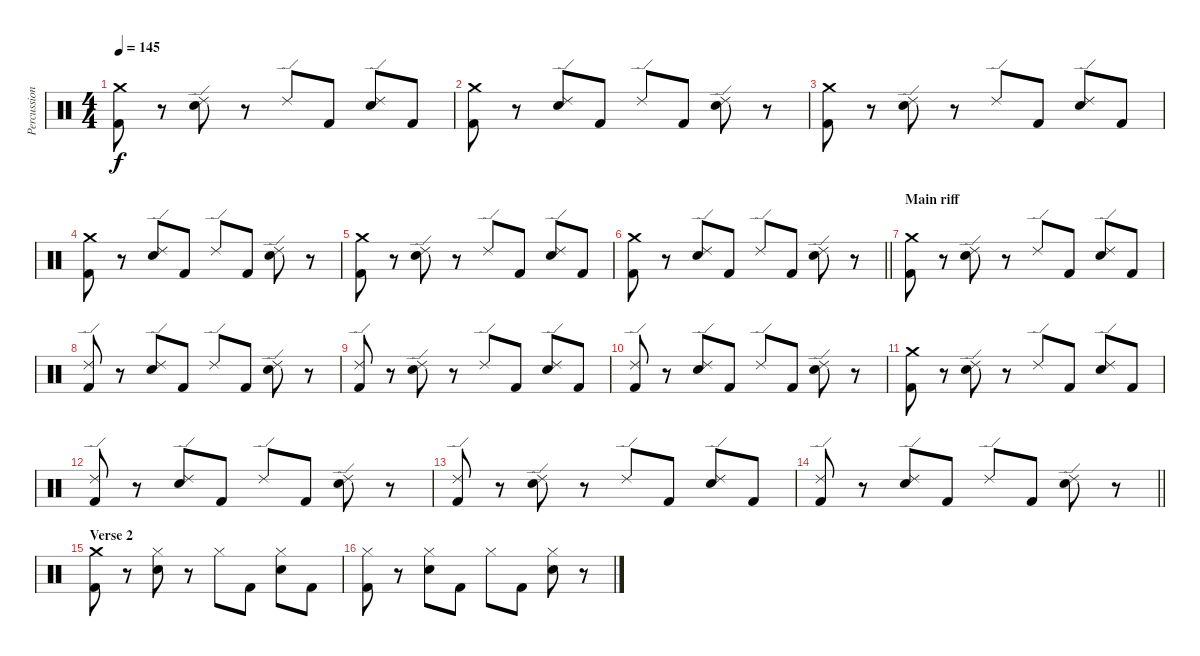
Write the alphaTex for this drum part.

\track ("Percussion" "Percussion") {instrument percussion}
\staff {score}
\articulation defaults
\ts (4 4)
\tempo 145
\clef neutral
\ks c
("Crash medium (hit)" "Kick (hit) 2").8{dy f} r.8 ("Ride (edge) 2" "Electric Snare (hit)").8 r.8 "Ride (edge) 2".8 "Kick (hit) 2".8 ("Ride (edge) 2" "Electric Snare (hit)").8 "Kick (hit) 2".8 |
("Crash medium (hit)" "Kick (hit) 2").8 r.8 ("Ride (edge) 2" "Electric Snare (hit)").8 "Kick (hit) 2".8 "Ride (edge) 2".8 "Kick (hit) 2".8 ("Ride (edge) 2" "Electric Snare (hit)").8 r.8 |
("Crash medium (hit)" "Kick (hit) 2").8 r.8 ("Ride (edge) 2" "Electric Snare (hit)").8 r.8 "Ride (edge) 2".8 "Kick (hit) 2".8 ("Ride (edge) 2" "Electric Snare (hit)").8 "Kick (hit) 2".8 |
("Crash medium (hit)" "Kick (hit) 2").8 r.8 ("Ride (edge) 2" "Electric Snare (hit)").8 "Kick (hit) 2".8 "Ride (edge) 2".8 "Kick (hit) 2".8 ("Ride (edge) 2" "Electric Snare (hit)").8 r.8 |
("Crash medium (hit)" "Kick (hit) 2").8 r.8 ("Ride (edge) 2" "Electric Snare (hit)").8 r.8 "Ride (edge) 2".8 "Kick (hit) 2".8 ("Ride (edge) 2" "Electric Snare (hit)").8 "Kick (hit) 2".8 |
\barLineRight lightlight
("Crash medium (hit)" "Kick (hit) 2").8 r.8 ("Ride (edge) 2" "Electric Snare (hit)").8 "Kick (hit) 2".8 "Ride (edge) 2".8 "Kick (hit) 2".8 ("Ride (edge) 2" "Electric Snare (hit)").8 r.8 |
\section ("" "Main riff")
("Crash medium (hit)" "Kick (hit) 2").8 r.8 ("Ride (edge) 2" "Electric Snare (hit)").8 r.8 "Ride (edge) 2".8 "Kick (hit) 2".8 ("Ride (edge) 2" "Electric Snare (hit)").8 "Kick (hit) 2".8 |
("Ride (edge) 2" "Kick (hit) 2").8 r.8 ("Ride (edge) 2" "Electric Snare (hit)").8 "Kick (hit) 2".8 "Ride (edge) 2".8 "Kick (hit) 2".8 ("Ride (edge) 2" "Electric Snare (hit)").8 r.8 |
("Ride (edge) 2" "Kick (hit) 2").8 r.8 ("Ride (edge) 2" "Electric Snare (hit)").8 r.8 "Ride (edge) 2".8 "Kick (hit) 2".8 ("Ride (edge) 2" "Electric Snare (hit)").8 "Kick (hit) 2".8 |
("Ride (edge) 2" "Kick (hit) 2").8 r.8 ("Ride (edge) 2" "Electric Snare (hit)").8 "Kick (hit) 2".8 "Ride (edge) 2".8 "Kick (hit) 2".8 ("Ride (edge) 2" "Electric Snare (hit)").8 r.8 |
("Crash medium (hit)" "Kick (hit) 2").8 r.8 ("Ride (edge) 2" "Electric Snare (hit)").8 r.8 "Ride (edge) 2".8 "Kick (hit) 2".8 ("Ride (edge) 2" "Electric Snare (hit)").8 "Kick (hit) 2".8 |
("Ride (edge) 2" "Kick (hit) 2").8 r.8 ("Ride (edge) 2" "Electric Snare (hit)").8 "Kick (hit) 2".8 "Ride (edge) 2".8 "Kick (hit) 2".8 ("Ride (edge) 2" "Electric Snare (hit)").8 r.8 |
("Ride (edge) 2" "Kick (hit) 2").8 r.8 ("Ride (edge) 2" "Electric Snare (hit)").8 r.8 "Ride (edge) 2".8 "Kick (hit) 2".8 ("Ride (edge) 2" "Electric Snare (hit)").8 "Kick (hit) 2".8 |
\barLineRight lightlight
("Ride (edge) 2" "Kick (hit) 2").8 r.8 ("Ride (edge) 2" "Electric Snare (hit)").8 "Kick (hit) 2".8 "Ride (edge) 2".8 "Kick (hit) 2".8 ("Ride (edge) 2" "Electric Snare (hit)").8 r.8 |
\section ("" "Verse 2")
("Crash medium (hit)" "Kick (hit) 2").8 r.8 ("Hi-Hat (closed)" "Electric Snare (hit)").8 r.8 "Hi-Hat (closed)".8 "Kick (hit) 2".8 ("Hi-Hat (closed)" "Electric Snare (hit)").8 "Kick (hit) 2".8 |
("Hi-Hat (closed)" "Kick (hit) 2").8 r.8 ("Hi-Hat (closed)" "Electric Snare (hit)").8 "Kick (hit) 2".8 "Hi-Hat (closed)".8 "Kick (hit) 2".8 ("Hi-Hat (closed)" "Electric Snare (hit)").8 r.8
